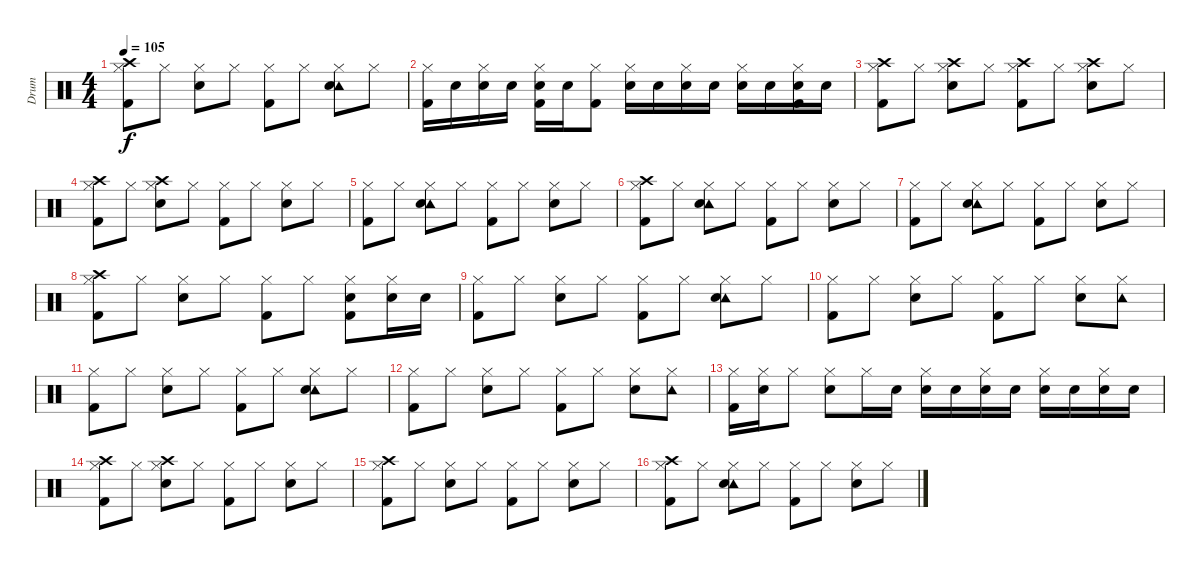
\track ("Drum" "Drum") {instrument percussion}
\staff {score}
\articulation defaults
\ts (4 4)
\tempo 105
\clef neutral
\ks c
("Crash high (hit)" "Hi-Hat (closed)" "Kick (hit) 2").8{dy f} "Hi-Hat (closed)".8 ("Electric Snare (hit)" "Hi-Hat (closed)").8 "Hi-Hat (closed)".8 ("Hi-Hat (closed)" "Kick (hit) 2").8 "Hi-Hat (closed)".8 ("Tambourine (hit)" "Electric Snare (hit)" "Hi-Hat (closed)").8 "Hi-Hat (closed)".8 |
("Hi-Hat (closed)" "Kick (hit) 2").16 "Electric Snare (hit)".16 ("Electric Snare (hit)" "Hi-Hat (closed)").16 "Electric Snare (hit)".16 ("Electric Snare (hit)" "Hi-Hat (closed)" "Kick (hit) 2").16 "Electric Snare (hit)".16 ("Hi-Hat (closed)" "Kick (hit) 2").8 ("Electric Snare (hit)" "Hi-Hat (closed)").16 "Electric Snare (hit)".16 ("Electric Snare (hit)" "Hi-Hat (closed)").16 "Electric Snare (hit)".16 ("Electric Snare (hit)" "Hi-Hat (closed)").16 "Electric Snare (hit)".16 ("Electric Snare (hit)" "Hi-Hat (closed)" "Kick (hit) 2").16 "Electric Snare (hit)".16 |
("Crash high (hit)" "Hi-Hat (closed)" "Kick (hit) 2").8 "Hi-Hat (closed)".8 ("Crash high (hit)" "Electric Snare (hit)" "Hi-Hat (closed)").8 "Hi-Hat (closed)".8 ("Crash high (hit)" "Hi-Hat (closed)" "Kick (hit) 2").8 "Hi-Hat (closed)".8 ("Crash high (hit)" "Electric Snare (hit)" "Hi-Hat (closed)").8 "Hi-Hat (closed)".8 |
("Crash high (hit)" "Hi-Hat (closed)" "Kick (hit) 2").8 "Hi-Hat (closed)".8 ("Crash high (hit)" "Electric Snare (hit)" "Hi-Hat (closed)").8 "Hi-Hat (closed)".8 ("Hi-Hat (closed)" "Kick (hit) 2").8 "Hi-Hat (closed)".8 ("Electric Snare (hit)" "Hi-Hat (closed)").8 "Hi-Hat (closed)".8 |
("Hi-Hat (closed)" "Kick (hit) 2").8 "Hi-Hat (closed)".8 ("Tambourine (hit)" "Electric Snare (hit)" "Hi-Hat (closed)").8 "Hi-Hat (closed)".8 ("Hi-Hat (closed)" "Kick (hit) 2").8 "Hi-Hat (closed)".8 ("Electric Snare (hit)" "Hi-Hat (closed)").8 "Hi-Hat (closed)".8 |
("Crash high (hit)" "Hi-Hat (closed)" "Kick (hit) 2").8 "Hi-Hat (closed)".8 ("Tambourine (hit)" "Electric Snare (hit)" "Hi-Hat (closed)").8 "Hi-Hat (closed)".8 ("Hi-Hat (closed)" "Kick (hit) 2").8 "Hi-Hat (closed)".8 ("Electric Snare (hit)" "Hi-Hat (closed)").8 "Hi-Hat (closed)".8 |
("Hi-Hat (closed)" "Kick (hit) 2").8 "Hi-Hat (closed)".8 ("Tambourine (hit)" "Electric Snare (hit)" "Hi-Hat (closed)").8 "Hi-Hat (closed)".8 ("Hi-Hat (closed)" "Kick (hit) 2").8 "Hi-Hat (closed)".8 ("Electric Snare (hit)" "Hi-Hat (closed)").8 "Hi-Hat (closed)".8 |
("Crash high (hit)" "Hi-Hat (closed)" "Kick (hit) 2").8 "Hi-Hat (closed)".8 ("Electric Snare (hit)" "Hi-Hat (closed)").8 "Hi-Hat (closed)".8 ("Hi-Hat (closed)" "Kick (hit) 2").8 "Hi-Hat (closed)".8 ("Electric Snare (hit)" "Hi-Hat (closed)" "Kick (hit) 2").8 ("Electric Snare (hit)" "Hi-Hat (closed)").16 "Electric Snare (hit)".16 |
("Hi-Hat (closed)" "Kick (hit) 2").8 "Hi-Hat (closed)".8 ("Electric Snare (hit)" "Hi-Hat (closed)").8 "Hi-Hat (closed)".8 ("Hi-Hat (closed)" "Kick (hit) 2").8 "Hi-Hat (closed)".8 ("Tambourine (hit)" "Electric Snare (hit)" "Hi-Hat (closed)").8 "Hi-Hat (closed)".8 |
("Hi-Hat (closed)" "Kick (hit) 2").8 "Hi-Hat (closed)".8 ("Electric Snare (hit)" "Hi-Hat (closed)").8 "Hi-Hat (closed)".8 ("Hi-Hat (closed)" "Kick (hit) 2").8 "Hi-Hat (closed)".8 ("Electric Snare (hit)" "Hi-Hat (closed)").8 ("Tambourine (hit)" "Hi-Hat (closed)").8 |
("Hi-Hat (closed)" "Kick (hit) 2").8 "Hi-Hat (closed)".8 ("Electric Snare (hit)" "Hi-Hat (closed)").8 "Hi-Hat (closed)".8 ("Hi-Hat (closed)" "Kick (hit) 2").8 "Hi-Hat (closed)".8 ("Tambourine (hit)" "Electric Snare (hit)" "Hi-Hat (closed)").8 "Hi-Hat (closed)".8 |
("Hi-Hat (closed)" "Kick (hit) 2").8 "Hi-Hat (closed)".8 ("Electric Snare (hit)" "Hi-Hat (closed)").8 "Hi-Hat (closed)".8 ("Hi-Hat (closed)" "Kick (hit) 2").8 "Hi-Hat (closed)".8 ("Electric Snare (hit)" "Hi-Hat (closed)").8 ("Tambourine (hit)" "Hi-Hat (closed)").8 |
("Hi-Hat (closed)" "Kick (hit) 2").16 ("Electric Snare (hit)" "Hi-Hat (closed)").16 "Hi-Hat (closed)".8 ("Electric Snare (hit)" "Hi-Hat (closed)").8 "Hi-Hat (closed)".16 "Electric Snare (hit)".16 ("Electric Snare (hit)" "Hi-Hat (closed)").16 "Electric Snare (hit)".16 ("Electric Snare (hit)" "Hi-Hat (closed)").16 "Electric Snare (hit)".16 ("Electric Snare (hit)" "Hi-Hat (closed)").16 "Electric Snare (hit)".16 ("Electric Snare (hit)" "Hi-Hat (closed)").16 "Electric Snare (hit)".16 |
("Crash high (hit)" "Hi-Hat (closed)" "Kick (hit) 2").8 "Hi-Hat (closed)".8 ("Crash high (hit)" "Electric Snare (hit)" "Hi-Hat (closed)").8 "Hi-Hat (closed)".8 ("Hi-Hat (closed)" "Kick (hit) 2").8 "Hi-Hat (closed)".8 ("Electric Snare (hit)" "Hi-Hat (closed)").8 "Hi-Hat (closed)".8 |
("Crash high (hit)" "Hi-Hat (closed)" "Kick (hit) 2").8 "Hi-Hat (closed)".8 ("Electric Snare (hit)" "Hi-Hat (closed)").8 "Hi-Hat (closed)".8 ("Hi-Hat (closed)" "Kick (hit) 2").8 "Hi-Hat (closed)".8 ("Electric Snare (hit)" "Hi-Hat (closed)").8 "Hi-Hat (closed)".8 |
("Crash high (hit)" "Hi-Hat (closed)" "Kick (hit) 2").8 "Hi-Hat (closed)".8 ("Tambourine (hit)" "Electric Snare (hit)" "Hi-Hat (closed)").8 "Hi-Hat (closed)".8 ("Hi-Hat (closed)" "Kick (hit) 2").8 "Hi-Hat (closed)".8 ("Electric Snare (hit)" "Hi-Hat (closed)").8 "Hi-Hat (closed)".8
